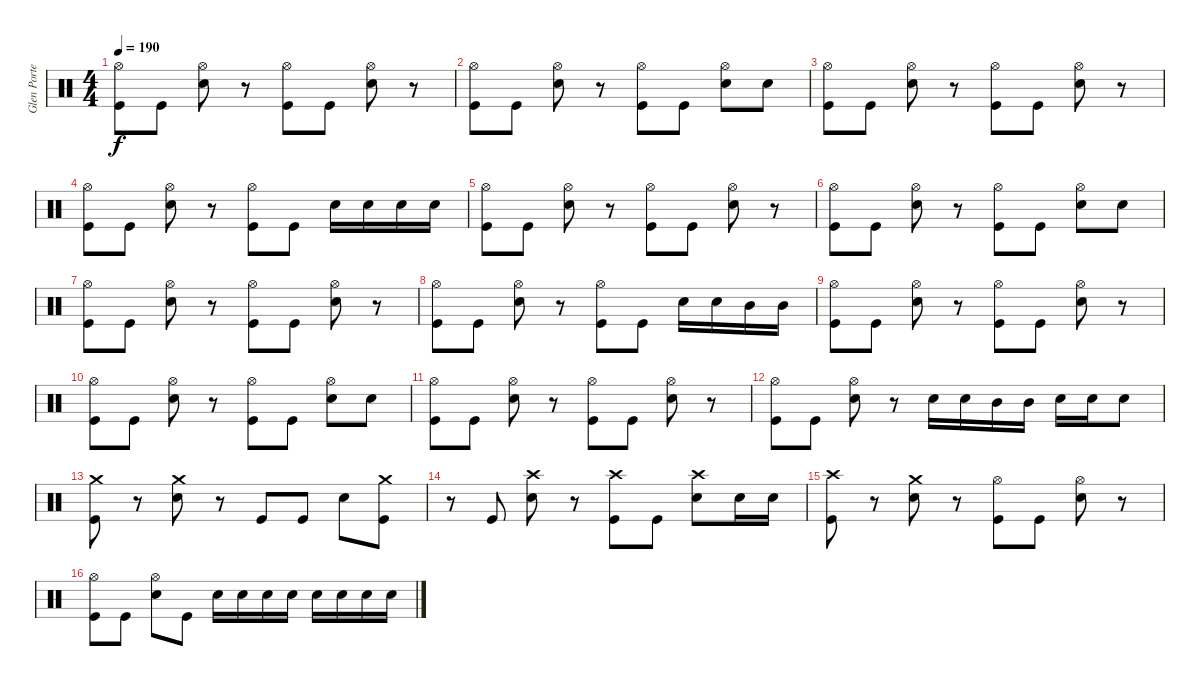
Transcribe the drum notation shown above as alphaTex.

\track ("Glen Porter" "Glen Porte") {instrument percussion}
\staff {score}
\articulation defaults
\ts (4 4)
\tempo 190
\clef neutral
\ks c
("Hi-Hat (open)" "Kick (hit)").8{dy f} "Kick (hit)".8 ("Hi-Hat (open)" "Snare (hit) 2").8 r.8 ("Hi-Hat (open)" "Kick (hit)").8 "Kick (hit)".8 ("Hi-Hat (open)" "Snare (hit) 2").8 r.8 |
("Hi-Hat (open)" "Kick (hit)").8 "Kick (hit)".8 ("Hi-Hat (open)" "Snare (hit) 2").8 r.8 ("Hi-Hat (open)" "Kick (hit)").8 "Kick (hit)".8 ("Hi-Hat (open)" "Snare (hit) 2").8 "Snare (hit) 2".8 |
("Hi-Hat (open)" "Kick (hit)").8 "Kick (hit)".8 ("Hi-Hat (open)" "Snare (hit) 2").8 r.8 ("Hi-Hat (open)" "Kick (hit)").8 "Kick (hit)".8 ("Hi-Hat (open)" "Snare (hit) 2").8 r.8 |
("Hi-Hat (open)" "Kick (hit)").8 "Kick (hit)".8 ("Hi-Hat (open)" "Snare (hit) 2").8 r.8 ("Hi-Hat (open)" "Kick (hit)").8 "Kick (hit)".8 "Snare (hit) 2".16 "Snare (hit) 2".16 "Snare (hit) 2".16 "Snare (hit) 2".16 |
("Hi-Hat (open)" "Kick (hit)").8 "Kick (hit)".8 ("Hi-Hat (open)" "Snare (hit) 2").8 r.8 ("Hi-Hat (open)" "Kick (hit)").8 "Kick (hit)".8 ("Hi-Hat (open)" "Snare (hit) 2").8 r.8 |
("Hi-Hat (open)" "Kick (hit)").8 "Kick (hit)".8 ("Hi-Hat (open)" "Snare (hit) 2").8 r.8 ("Hi-Hat (open)" "Kick (hit)").8 "Kick (hit)".8 ("Hi-Hat (open)" "Snare (hit) 2").8 "Snare (hit) 2".8 |
("Hi-Hat (open)" "Kick (hit)").8 "Kick (hit)".8 ("Hi-Hat (open)" "Snare (hit) 2").8 r.8 ("Hi-Hat (open)" "Kick (hit)").8 "Kick (hit)".8 ("Hi-Hat (open)" "Snare (hit) 2").8 r.8 |
("Hi-Hat (open)" "Kick (hit)").8 "Kick (hit)".8 ("Hi-Hat (open)" "Snare (hit) 2").8 r.8 ("Hi-Hat (open)" "Kick (hit)").8 "Kick (hit)".8 "Snare (hit) 2".16 "Snare (hit) 2".16 "Mid Tom (hit)".16 "Mid Tom (hit)".16 |
("Hi-Hat (open)" "Kick (hit)").8 "Kick (hit)".8 ("Hi-Hat (open)" "Snare (hit) 2").8 r.8 ("Hi-Hat (open)" "Kick (hit)").8 "Kick (hit)".8 ("Hi-Hat (open)" "Snare (hit) 2").8 r.8 |
("Hi-Hat (open)" "Kick (hit)").8 "Kick (hit)".8 ("Hi-Hat (open)" "Snare (hit) 2").8 r.8 ("Hi-Hat (open)" "Kick (hit)").8 "Kick (hit)".8 ("Hi-Hat (open)" "Snare (hit) 2").8 "Snare (hit) 2".8 |
("Hi-Hat (open)" "Kick (hit)").8 "Kick (hit)".8 ("Hi-Hat (open)" "Snare (hit) 2").8 r.8 ("Hi-Hat (open)" "Kick (hit)").8 "Kick (hit)".8 ("Hi-Hat (open)" "Snare (hit) 2").8 r.8 |
("Hi-Hat (open)" "Kick (hit)").8 "Kick (hit)".8 ("Hi-Hat (open)" "Snare (hit) 2").8 r.8 "Snare (hit) 2".16 "Snare (hit) 2".16 "Mid Tom (hit)".16 "Mid Tom (hit)".16 "Snare (hit) 2".16 "Snare (hit) 2".16 "Snare (hit) 2".8 |
("Crash medium (hit)" "Kick (hit)").8 r.8 ("Crash medium (hit)" "Snare (hit) 2").8 r.8 "Kick (hit)".8 "Kick (hit)".8 "Snare (hit) 2".8 ("Crash medium (hit)" "Kick (hit)").8 |
r.8 "Kick (hit)".8 ("Crash high (hit)" "Snare (hit) 2").8 r.8 ("Crash high (hit)" "Kick (hit)").8 "Kick (hit)".8 ("Crash high (hit)" "Snare (hit) 2").8 "Snare (hit) 2".16 "Snare (hit) 2".16 |
("Crash high (hit)" "Kick (hit)").8 r.8 ("Crash medium (hit)" "Snare (hit) 2").8 r.8 ("Hi-Hat (open)" "Kick (hit)").8 "Kick (hit)".8 ("Hi-Hat (open)" "Snare (hit) 2").8 r.8 |
("Hi-Hat (open)" "Kick (hit)").8 "Kick (hit)".8 ("Hi-Hat (open)" "Snare (hit) 2").8 "Kick (hit)".8 "Snare (hit) 2".16 "Snare (hit) 2".16 "Snare (hit) 2".16 "Snare (hit) 2".16 "Snare (hit) 2".16 "Snare (hit) 2".16 "Snare (hit) 2".16 "Snare (hit) 2".16
